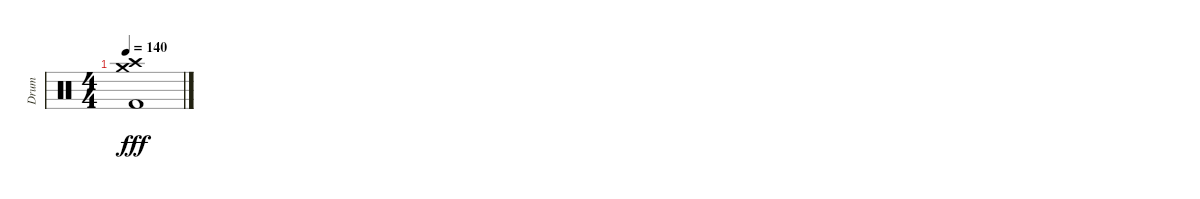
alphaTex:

\track ("Drum" "Drum") {instrument percussion}
\staff {score}
\articulation defaults
\ts (4 4)
\tempo 140
\clef neutral
\ks c
("Crash medium (hit)" "Crash high (hit)" "Kick (hit) 2").1{dy fff}
